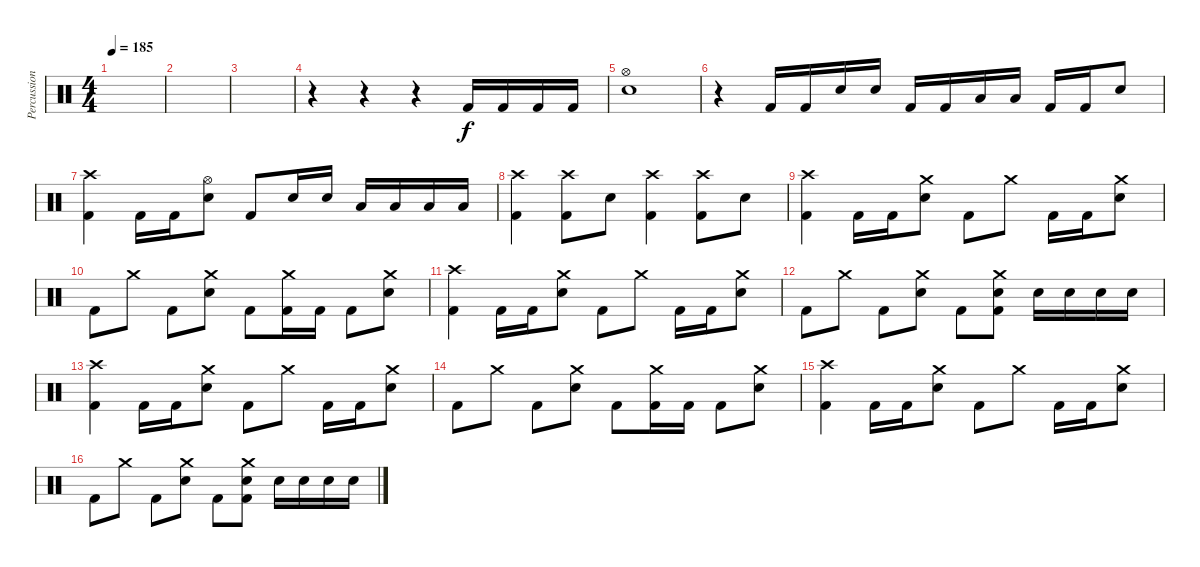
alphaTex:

\track ("Percussion" "Percussion") {instrument percussion}
\staff {score}
\articulation defaults
\ts (4 4)
\tempo 185
\clef neutral
\ks c
|
|
|
r.4 r.4 r.4 "Kick (hit) 2".16 "Kick (hit) 2".16 "Kick (hit) 2".16 "Kick (hit) 2".16 |
("Hi-Hat (open)" "Electric Snare (hit)").1 |
r.4 "Kick (hit) 2".16 "Kick (hit) 2".16 "Electric Snare (hit)".16 "Electric Snare (hit)".16 "Kick (hit) 2".16 "Kick (hit) 2".16 "Low Tom (hit)".16 "Low Tom (hit)".16 "Kick (hit) 2".16 "Kick (hit) 2".16 "Electric Snare (hit)".8 |
("Crash high (hit)" "Kick (hit) 2").4 "Kick (hit) 2".16 "Kick (hit) 2".16 ("Hi-Hat (open)" "Electric Snare (hit)").8 "Kick (hit) 2".8 "Electric Snare (hit)".16 "Electric Snare (hit)".16 "Low Tom (hit)".16 "Low Tom (hit)".16 "Low Tom (hit)".16 "Low Tom (hit)".16 |
("Crash high (hit)" "Kick (hit) 2").4 ("Crash high (hit)" "Kick (hit) 2").8 "Electric Snare (hit)".8 ("Crash high (hit)" "Kick (hit) 2").4 ("Crash high (hit)" "Kick (hit) 2").8 "Electric Snare (hit)".8 |
("Crash high (hit)" "Kick (hit) 2").4 "Kick (hit) 2".16 "Kick (hit) 2".16 ("Crash medium (hit)" "Electric Snare (hit)").8 "Kick (hit) 2".8 "Crash medium (hit)".8 "Kick (hit) 2".16 "Kick (hit) 2".16 ("Crash medium (hit)" "Electric Snare (hit)").8 |
"Kick (hit) 2".8 "Crash medium (hit)".8 "Kick (hit) 2".8 ("Crash medium (hit)" "Electric Snare (hit)").8 "Kick (hit) 2".8 ("Crash medium (hit)" "Kick (hit) 2").16 "Kick (hit) 2".16 "Kick (hit) 2".8 ("Crash medium (hit)" "Electric Snare (hit)").8 |
("Crash high (hit)" "Kick (hit) 2").4 "Kick (hit) 2".16 "Kick (hit) 2".16 ("Crash medium (hit)" "Electric Snare (hit)").8 "Kick (hit) 2".8 "Crash medium (hit)".8 "Kick (hit) 2".16 "Kick (hit) 2".16 ("Crash medium (hit)" "Electric Snare (hit)").8 |
"Kick (hit) 2".8 "Crash medium (hit)".8 "Kick (hit) 2".8 ("Crash medium (hit)" "Electric Snare (hit)").8 "Kick (hit) 2".8 ("Crash medium (hit)" "Electric Snare (hit)" "Kick (hit) 2").8 "Electric Snare (hit)".16 "Electric Snare (hit)".16 "Electric Snare (hit)".16 "Electric Snare (hit)".16 |
("Crash high (hit)" "Kick (hit) 2").4 "Kick (hit) 2".16 "Kick (hit) 2".16 ("Crash medium (hit)" "Electric Snare (hit)").8 "Kick (hit) 2".8 "Crash medium (hit)".8 "Kick (hit) 2".16 "Kick (hit) 2".16 ("Crash medium (hit)" "Electric Snare (hit)").8 |
"Kick (hit) 2".8 "Crash medium (hit)".8 "Kick (hit) 2".8 ("Crash medium (hit)" "Electric Snare (hit)").8 "Kick (hit) 2".8 ("Crash medium (hit)" "Kick (hit) 2").16 "Kick (hit) 2".16 "Kick (hit) 2".8 ("Crash medium (hit)" "Electric Snare (hit)").8 |
("Crash high (hit)" "Kick (hit) 2").4 "Kick (hit) 2".16 "Kick (hit) 2".16 ("Crash medium (hit)" "Electric Snare (hit)").8 "Kick (hit) 2".8 "Crash medium (hit)".8 "Kick (hit) 2".16 "Kick (hit) 2".16 ("Crash medium (hit)" "Electric Snare (hit)").8 |
"Kick (hit) 2".8 "Crash medium (hit)".8 "Kick (hit) 2".8 ("Crash medium (hit)" "Electric Snare (hit)").8 "Kick (hit) 2".8 ("Crash medium (hit)" "Electric Snare (hit)" "Kick (hit) 2").8 "Electric Snare (hit)".16 "Electric Snare (hit)".16 "Electric Snare (hit)".16 "Electric Snare (hit)".16
